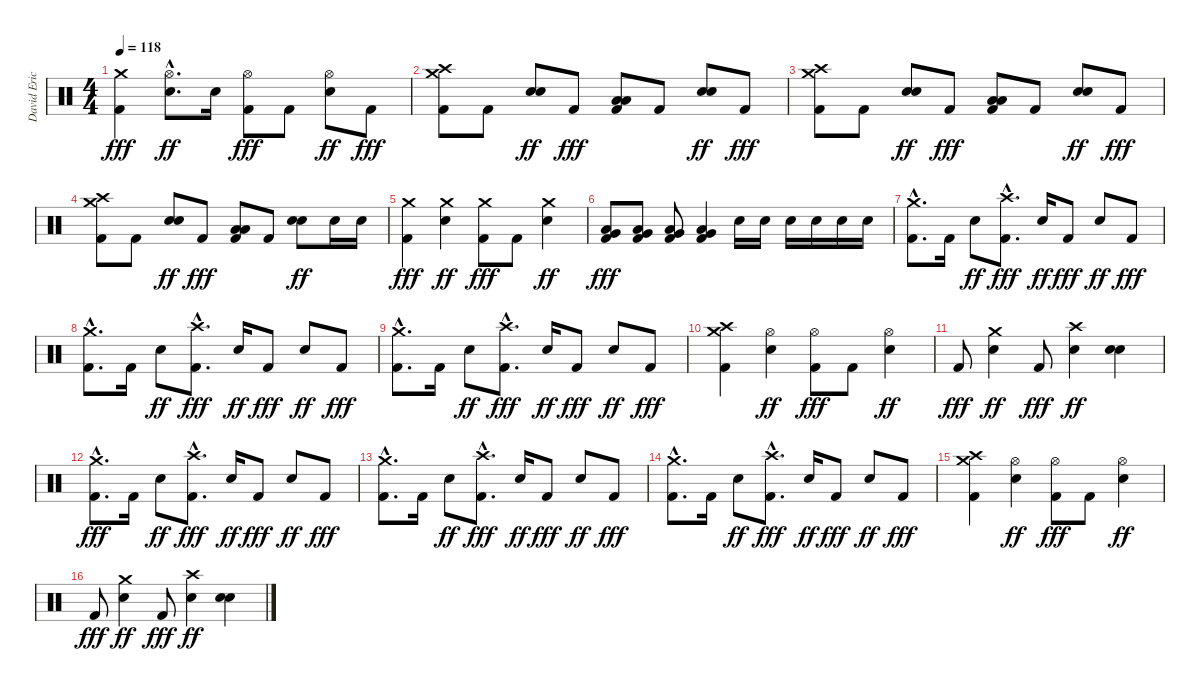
\track ("David Eric Grohl" "David Eric") {instrument percussion}
\staff {score}
\articulation defaults
\ts (4 4)
\tempo 118
\clef neutral
\ks c
("Crash medium (hit)" "Kick (hit) 2").4{dy fff} ("Hi-Hat (open)"{hac} "Electric Snare (hit)"{hac}).8{d dy ff} "Electric Snare (hit)".16 ("Hi-Hat (open)" "Kick (hit) 2").8{dy fff} "Kick (hit) 2".8 ("Hi-Hat (open)" "Electric Snare (hit)").8{dy ff} "Kick (hit) 2".8{dy fff} |
("Crash high (hit)" "Crash medium (hit)" "Kick (hit) 2").8 "Kick (hit) 2".8 ("Electric Snare (hit)" "Electric Snare (hit)").8{dy ff} "Kick (hit) 2".8{dy fff} ("Low Tom (hit)" "Low Tom (hit)" "Kick (hit) 2").8 "Kick (hit) 2".8 ("Electric Snare (hit)" "Electric Snare (hit)").8{dy ff} "Kick (hit) 2".8{dy fff} |
("Crash high (hit)" "Crash medium (hit)" "Kick (hit) 2").8 "Kick (hit) 2".8 ("Electric Snare (hit)" "Electric Snare (hit)").8{dy ff} "Kick (hit) 2".8{dy fff} ("Low Tom (hit)" "Low Tom (hit)" "Kick (hit) 2").8 "Kick (hit) 2".8 ("Electric Snare (hit)" "Electric Snare (hit)").8{dy ff} "Kick (hit) 2".8{dy fff} |
("Crash high (hit)" "Crash medium (hit)" "Kick (hit) 2").8 "Kick (hit) 2".8 ("Electric Snare (hit)" "Electric Snare (hit)").8{dy ff} "Kick (hit) 2".8{dy fff} ("Low Tom (hit)" "Low Tom (hit)" "Kick (hit) 2").8 "Kick (hit) 2".8 ("Electric Snare (hit)" "Electric Snare (hit)").8{dy ff} "Electric Snare (hit)".16 "Electric Snare (hit)".16 |
("Crash medium (hit)" "Kick (hit) 2").4{dy fff} ("Crash medium (hit)" "Electric Snare (hit)").4{dy ff} ("Crash medium (hit)" "Kick (hit) 2").8{dy fff} "Kick (hit) 2".8 ("Crash medium (hit)" "Electric Snare (hit)").4{dy ff} |
("Low Tom (hit)" "Very Low Tom (hit)" "Kick (hit) 2").8{dy fff} ("Low Tom (hit)" "Very Low Tom (hit)" "Kick (hit) 2").8 ("Low Tom (hit)" "Very Low Tom (hit)" "Kick (hit) 2").8 ("Low Tom (hit)" "Very Low Tom (hit)" "Kick (hit) 2").4 "Electric Snare (hit)".16 "Electric Snare (hit)".16 "Electric Snare (hit)".16 "Electric Snare (hit)".16 "Electric Snare (hit)".16 "Electric Snare (hit)".16 |
("Crash medium (hit)"{hac} "Kick (hit) 2"{hac}).8{d} "Kick (hit) 2".16 "Electric Snare (hit)".8{dy ff} ("Crash high (hit)"{hac} "Kick (hit) 2"{hac}).8{d dy fff} "Electric Snare (hit)".16{dy ff} "Kick (hit) 2".8{dy fff} "Electric Snare (hit)".8{dy ff} "Kick (hit) 2".8{dy fff} |
("Crash medium (hit)"{hac} "Kick (hit) 2"{hac}).8{d} "Kick (hit) 2".16 "Electric Snare (hit)".8{dy ff} ("Crash high (hit)"{hac} "Kick (hit) 2"{hac}).8{d dy fff} "Electric Snare (hit)".16{dy ff} "Kick (hit) 2".8{dy fff} "Electric Snare (hit)".8{dy ff} "Kick (hit) 2".8{dy fff} |
("Crash medium (hit)"{hac} "Kick (hit) 2"{hac}).8{d} "Kick (hit) 2".16 "Electric Snare (hit)".8{dy ff} ("Crash high (hit)"{hac} "Kick (hit) 2"{hac}).8{d dy fff} "Electric Snare (hit)".16{dy ff} "Kick (hit) 2".8{dy fff} "Electric Snare (hit)".8{dy ff} "Kick (hit) 2".8{dy fff} |
("Crash high (hit)" "Crash medium (hit)" "Kick (hit) 2").4 ("Hi-Hat (open)" "Electric Snare (hit)").4{dy ff} ("Hi-Hat (open)" "Kick (hit) 2").8{dy fff} "Kick (hit) 2".8 ("Hi-Hat (open)" "Electric Snare (hit)").4{dy ff} |
"Kick (hit) 2".8{dy fff} ("Crash medium (hit)" "Electric Snare (hit)").4{dy ff} "Kick (hit) 2".8{dy fff} ("Crash high (hit)" "Electric Snare (hit)").4{dy ff} ("Electric Snare (hit)" "Electric Snare (hit)").4 |
("Crash medium (hit)"{hac} "Kick (hit) 2"{hac}).8{d dy fff} "Kick (hit) 2".16 "Electric Snare (hit)".8{dy ff} ("Crash high (hit)"{hac} "Kick (hit) 2"{hac}).8{d dy fff} "Electric Snare (hit)".16{dy ff} "Kick (hit) 2".8{dy fff} "Electric Snare (hit)".8{dy ff} "Kick (hit) 2".8{dy fff} |
("Crash medium (hit)"{hac} "Kick (hit) 2"{hac}).8{d} "Kick (hit) 2".16 "Electric Snare (hit)".8{dy ff} ("Crash high (hit)"{hac} "Kick (hit) 2"{hac}).8{d dy fff} "Electric Snare (hit)".16{dy ff} "Kick (hit) 2".8{dy fff} "Electric Snare (hit)".8{dy ff} "Kick (hit) 2".8{dy fff} |
("Crash medium (hit)"{hac} "Kick (hit) 2"{hac}).8{d} "Kick (hit) 2".16 "Electric Snare (hit)".8{dy ff} ("Crash high (hit)"{hac} "Kick (hit) 2"{hac}).8{d dy fff} "Electric Snare (hit)".16{dy ff} "Kick (hit) 2".8{dy fff} "Electric Snare (hit)".8{dy ff} "Kick (hit) 2".8{dy fff} |
("Crash high (hit)" "Crash medium (hit)" "Kick (hit) 2").4 ("Hi-Hat (open)" "Electric Snare (hit)").4{dy ff} ("Hi-Hat (open)" "Kick (hit) 2").8{dy fff} "Kick (hit) 2".8 ("Hi-Hat (open)" "Electric Snare (hit)").4{dy ff} |
"Kick (hit) 2".8{dy fff} ("Crash medium (hit)" "Electric Snare (hit)").4{dy ff} "Kick (hit) 2".8{dy fff} ("Crash high (hit)" "Electric Snare (hit)").4{dy ff} ("Electric Snare (hit)" "Electric Snare (hit)").4
